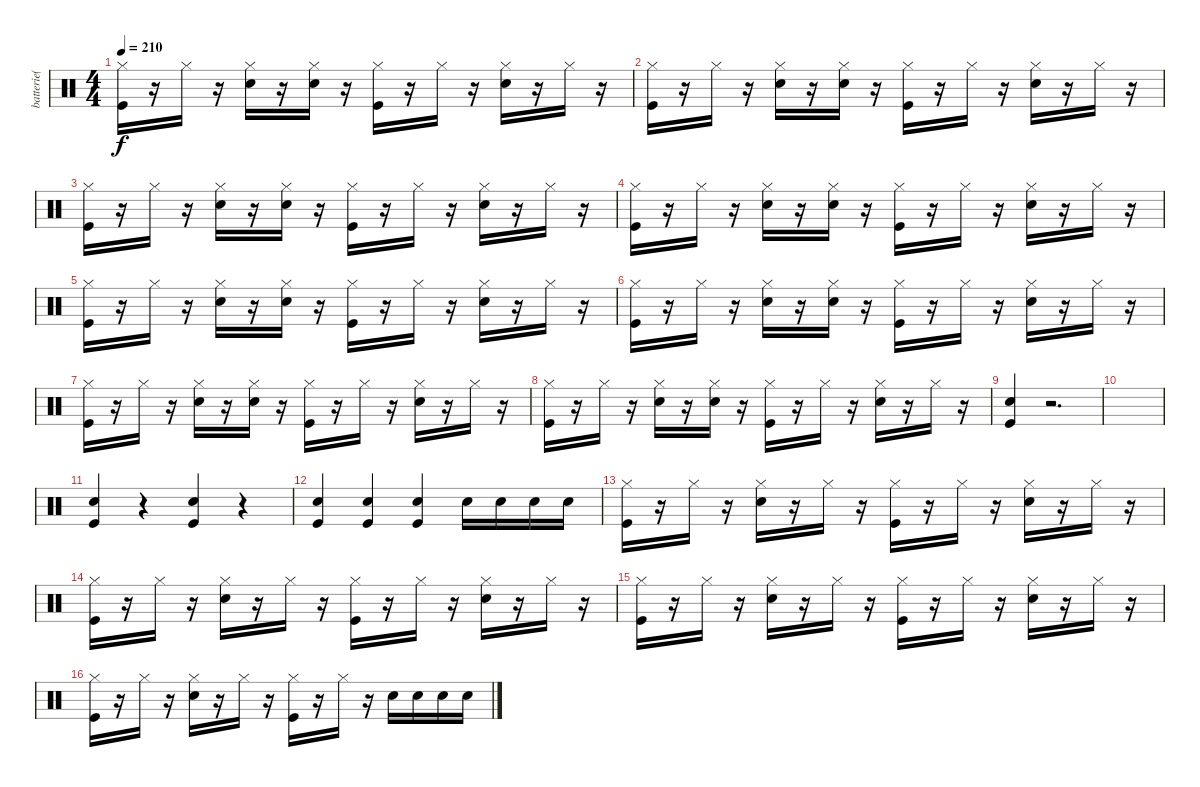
\track ("batterie( Michael Davison )" "batterie( ") {instrument percussion}
\staff {score}
\articulation defaults
\ts (4 4)
\tempo 210
\clef neutral
\ks c
("Hi-Hat (closed)" "Kick (hit)").16{dy f} r.16 "Hi-Hat (closed)".16 r.16 ("Hi-Hat (closed)" "Snare (hit) 2").16 r.16 ("Hi-Hat (closed)" "Snare (hit) 2").16 r.16 ("Hi-Hat (closed)" "Kick (hit)").16 r.16 "Hi-Hat (closed)".16 r.16 ("Hi-Hat (closed)" "Snare (hit) 2").16 r.16 "Hi-Hat (closed)".16 r.16 |
("Hi-Hat (closed)" "Kick (hit)").16 r.16 "Hi-Hat (closed)".16 r.16 ("Hi-Hat (closed)" "Snare (hit) 2").16 r.16 ("Hi-Hat (closed)" "Snare (hit) 2").16 r.16 ("Hi-Hat (closed)" "Kick (hit)").16 r.16 "Hi-Hat (closed)".16 r.16 ("Hi-Hat (closed)" "Snare (hit) 2").16 r.16 "Hi-Hat (closed)".16 r.16 |
("Hi-Hat (closed)" "Kick (hit)").16 r.16 "Hi-Hat (closed)".16 r.16 ("Hi-Hat (closed)" "Snare (hit) 2").16 r.16 ("Hi-Hat (closed)" "Snare (hit) 2").16 r.16 ("Hi-Hat (closed)" "Kick (hit)").16 r.16 "Hi-Hat (closed)".16 r.16 ("Hi-Hat (closed)" "Snare (hit) 2").16 r.16 "Hi-Hat (closed)".16 r.16 |
("Hi-Hat (closed)" "Kick (hit)").16 r.16 "Hi-Hat (closed)".16 r.16 ("Hi-Hat (closed)" "Snare (hit) 2").16 r.16 ("Hi-Hat (closed)" "Snare (hit) 2").16 r.16 ("Hi-Hat (closed)" "Kick (hit)").16 r.16 "Hi-Hat (closed)".16 r.16 ("Hi-Hat (closed)" "Snare (hit) 2").16 r.16 "Hi-Hat (closed)".16 r.16 |
("Hi-Hat (closed)" "Kick (hit)").16 r.16 "Hi-Hat (closed)".16 r.16 ("Hi-Hat (closed)" "Snare (hit) 2").16 r.16 ("Hi-Hat (closed)" "Snare (hit) 2").16 r.16 ("Hi-Hat (closed)" "Kick (hit)").16 r.16 "Hi-Hat (closed)".16 r.16 ("Hi-Hat (closed)" "Snare (hit) 2").16 r.16 "Hi-Hat (closed)".16 r.16 |
("Hi-Hat (closed)" "Kick (hit)").16 r.16 "Hi-Hat (closed)".16 r.16 ("Hi-Hat (closed)" "Snare (hit) 2").16 r.16 ("Hi-Hat (closed)" "Snare (hit) 2").16 r.16 ("Hi-Hat (closed)" "Kick (hit)").16 r.16 "Hi-Hat (closed)".16 r.16 ("Hi-Hat (closed)" "Snare (hit) 2").16 r.16 "Hi-Hat (closed)".16 r.16 |
("Hi-Hat (closed)" "Kick (hit)").16 r.16 "Hi-Hat (closed)".16 r.16 ("Hi-Hat (closed)" "Snare (hit) 2").16 r.16 ("Hi-Hat (closed)" "Snare (hit) 2").16 r.16 ("Hi-Hat (closed)" "Kick (hit)").16 r.16 "Hi-Hat (closed)".16 r.16 ("Hi-Hat (closed)" "Snare (hit) 2").16 r.16 "Hi-Hat (closed)".16 r.16 |
("Hi-Hat (closed)" "Kick (hit)").16 r.16 "Hi-Hat (closed)".16 r.16 ("Hi-Hat (closed)" "Snare (hit) 2").16 r.16 ("Hi-Hat (closed)" "Snare (hit) 2").16 r.16 ("Hi-Hat (closed)" "Kick (hit)").16 r.16 "Hi-Hat (closed)".16 r.16 ("Hi-Hat (closed)" "Snare (hit) 2").16 r.16 "Hi-Hat (closed)".16 r.16 |
("Snare (hit) 2" "Kick (hit)").4 r.2{d} |
|
("Snare (hit) 2" "Kick (hit)").4 r.4 ("Snare (hit) 2" "Kick (hit)").4 r.4 |
("Snare (hit) 2" "Kick (hit)").4 ("Snare (hit) 2" "Kick (hit)").4 ("Snare (hit) 2" "Kick (hit)").4 "Snare (hit) 2".16 "Snare (hit) 2".16 "Snare (hit) 2".16 "Snare (hit) 2".16 |
("Hi-Hat (closed)" "Kick (hit)").16 r.16 "Hi-Hat (closed)".16 r.16 ("Hi-Hat (closed)" "Snare (hit) 2").16 r.16 "Hi-Hat (closed)".16 r.16 ("Hi-Hat (closed)" "Kick (hit)").16 r.16 "Hi-Hat (closed)".16 r.16 ("Hi-Hat (closed)" "Snare (hit) 2").16 r.16 "Hi-Hat (closed)".16 r.16 |
("Hi-Hat (closed)" "Kick (hit)").16 r.16 "Hi-Hat (closed)".16 r.16 ("Hi-Hat (closed)" "Snare (hit) 2").16 r.16 "Hi-Hat (closed)".16 r.16 ("Hi-Hat (closed)" "Kick (hit)").16 r.16 "Hi-Hat (closed)".16 r.16 ("Hi-Hat (closed)" "Snare (hit) 2").16 r.16 "Hi-Hat (closed)".16 r.16 |
("Hi-Hat (closed)" "Kick (hit)").16 r.16 "Hi-Hat (closed)".16 r.16 ("Hi-Hat (closed)" "Snare (hit) 2").16 r.16 "Hi-Hat (closed)".16 r.16 ("Hi-Hat (closed)" "Kick (hit)").16 r.16 "Hi-Hat (closed)".16 r.16 ("Hi-Hat (closed)" "Snare (hit) 2").16 r.16 "Hi-Hat (closed)".16 r.16 |
("Hi-Hat (closed)" "Kick (hit)").16 r.16 "Hi-Hat (closed)".16 r.16 ("Hi-Hat (closed)" "Snare (hit) 2").16 r.16 "Hi-Hat (closed)".16 r.16 ("Hi-Hat (closed)" "Kick (hit)").16 r.16 "Hi-Hat (closed)".16 r.16 "Snare (hit) 2".16 "Snare (hit) 2".16 "Snare (hit) 2".16 "Snare (hit) 2".16
